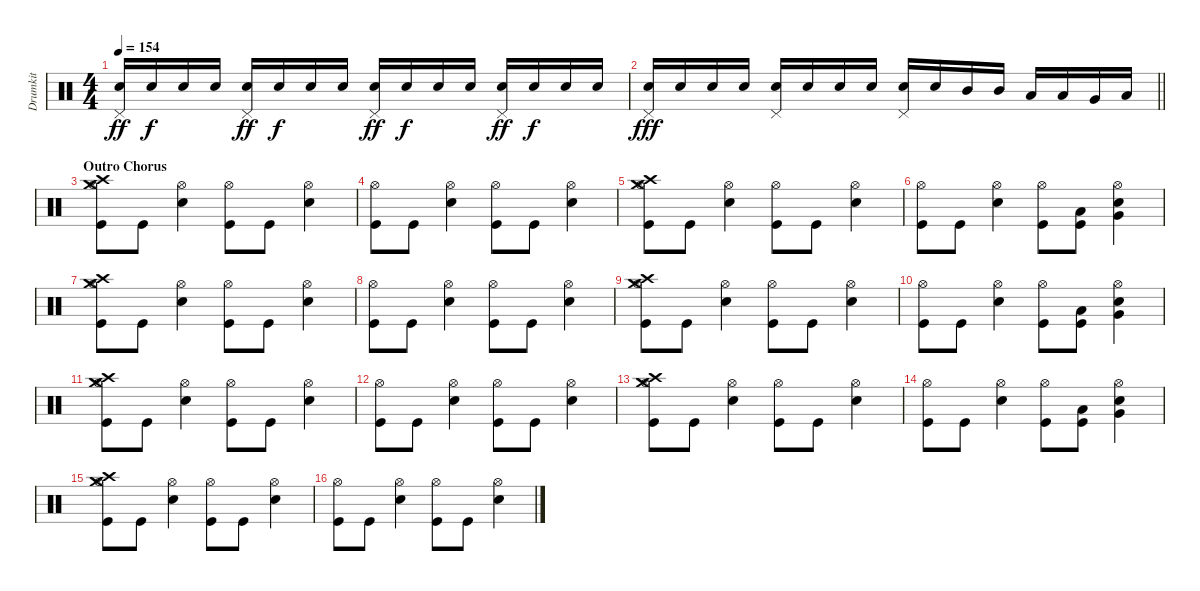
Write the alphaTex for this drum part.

\track ("Drumkit" "Drumkit") {instrument percussion}
\staff {score}
\articulation defaults
\ts (4 4)
\tempo 154
\clef neutral
\ks c
("Pedal Hi-Hat (hit)" "Snare (hit) 2").16{dy ff} "Snare (hit) 2".16{dy f} "Snare (hit) 2".16 "Snare (hit) 2".16 ("Pedal Hi-Hat (hit)" "Snare (hit) 2").16{dy ff} "Snare (hit) 2".16{dy f} "Snare (hit) 2".16 "Snare (hit) 2".16 ("Pedal Hi-Hat (hit)" "Snare (hit) 2").16{dy ff} "Snare (hit) 2".16{dy f} "Snare (hit) 2".16 "Snare (hit) 2".16 ("Pedal Hi-Hat (hit)" "Snare (hit) 2").16{dy ff} "Snare (hit) 2".16{dy f} "Snare (hit) 2".16 "Snare (hit) 2".16 |
\barLineRight lightlight
("Pedal Hi-Hat (hit)" "Snare (hit) 2").16{dy fff} "Snare (hit) 2".16 "Snare (hit) 2".16 "Snare (hit) 2".16 ("Pedal Hi-Hat (hit)" "Snare (hit) 2").16 "Snare (hit) 2".16 "Snare (hit) 2".16 "Snare (hit) 2".16 ("Pedal Hi-Hat (hit)" "Snare (hit) 2").16 "Snare (hit) 2".16 "Mid Tom (hit)".16 "Mid Tom (hit)".16 "Low Tom (hit)".16 "Low Tom (hit)".16 "Very Low Tom (hit)".16 "Low Floor Tom (hit)".16 |
\section ("" "Outro Chorus ")
("Crash high (hit)" "Hi-Hat (open)" "Crash medium (hit)" "Kick (hit)").8 "Kick (hit)".8 ("Hi-Hat (open)" "Snare (hit) 2").4 ("Hi-Hat (open)" "Kick (hit)").8 "Kick (hit)".8 ("Hi-Hat (open)" "Snare (hit) 2").4 |
("Hi-Hat (open)" "Kick (hit)").8 "Kick (hit)".8 ("Hi-Hat (open)" "Snare (hit) 2").4 ("Hi-Hat (open)" "Kick (hit)").8 "Kick (hit)".8 ("Hi-Hat (open)" "Snare (hit) 2").4 |
("Crash high (hit)" "Hi-Hat (open)" "Crash medium (hit)" "Kick (hit)").8 "Kick (hit)".8 ("Hi-Hat (open)" "Snare (hit) 2").4 ("Hi-Hat (open)" "Kick (hit)").8 "Kick (hit)".8 ("Hi-Hat (open)" "Snare (hit) 2").4 |
("Hi-Hat (open)" "Kick (hit)").8 "Kick (hit)".8 ("Hi-Hat (open)" "Snare (hit) 2").4 ("Hi-Hat (open)" "Kick (hit)").8 ("Low Tom (hit)" "Kick (hit)").8 ("Hi-Hat (open)" "Very Low Tom (hit)" "Snare (hit) 2").4 |
("Crash high (hit)" "Hi-Hat (open)" "Crash medium (hit)" "Kick (hit)").8 "Kick (hit)".8 ("Hi-Hat (open)" "Snare (hit) 2").4 ("Hi-Hat (open)" "Kick (hit)").8 "Kick (hit)".8 ("Hi-Hat (open)" "Snare (hit) 2").4 |
("Hi-Hat (open)" "Kick (hit)").8 "Kick (hit)".8 ("Hi-Hat (open)" "Snare (hit) 2").4 ("Hi-Hat (open)" "Kick (hit)").8 "Kick (hit)".8 ("Hi-Hat (open)" "Snare (hit) 2").4 |
("Crash high (hit)" "Hi-Hat (open)" "Crash medium (hit)" "Kick (hit)").8 "Kick (hit)".8 ("Hi-Hat (open)" "Snare (hit) 2").4 ("Hi-Hat (open)" "Kick (hit)").8 "Kick (hit)".8 ("Hi-Hat (open)" "Snare (hit) 2").4 |
("Hi-Hat (open)" "Kick (hit)").8 "Kick (hit)".8 ("Hi-Hat (open)" "Snare (hit) 2").4 ("Hi-Hat (open)" "Kick (hit)").8 ("Low Tom (hit)" "Kick (hit)").8 ("Hi-Hat (open)" "Very Low Tom (hit)" "Snare (hit) 2").4 |
("Crash high (hit)" "Hi-Hat (open)" "Crash medium (hit)" "Kick (hit)").8 "Kick (hit)".8 ("Hi-Hat (open)" "Snare (hit) 2").4 ("Hi-Hat (open)" "Kick (hit)").8 "Kick (hit)".8 ("Hi-Hat (open)" "Snare (hit) 2").4 |
("Hi-Hat (open)" "Kick (hit)").8 "Kick (hit)".8 ("Hi-Hat (open)" "Snare (hit) 2").4 ("Hi-Hat (open)" "Kick (hit)").8 "Kick (hit)".8 ("Hi-Hat (open)" "Snare (hit) 2").4 |
("Crash high (hit)" "Hi-Hat (open)" "Crash medium (hit)" "Kick (hit)").8 "Kick (hit)".8 ("Hi-Hat (open)" "Snare (hit) 2").4 ("Hi-Hat (open)" "Kick (hit)").8 "Kick (hit)".8 ("Hi-Hat (open)" "Snare (hit) 2").4 |
("Hi-Hat (open)" "Kick (hit)").8 "Kick (hit)".8 ("Hi-Hat (open)" "Snare (hit) 2").4 ("Hi-Hat (open)" "Kick (hit)").8 ("Low Tom (hit)" "Kick (hit)").8 ("Hi-Hat (open)" "Very Low Tom (hit)" "Snare (hit) 2").4 |
("Crash high (hit)" "Hi-Hat (open)" "Crash medium (hit)" "Kick (hit)").8 "Kick (hit)".8 ("Hi-Hat (open)" "Snare (hit) 2").4 ("Hi-Hat (open)" "Kick (hit)").8 "Kick (hit)".8 ("Hi-Hat (open)" "Snare (hit) 2").4 |
("Hi-Hat (open)" "Kick (hit)").8 "Kick (hit)".8 ("Hi-Hat (open)" "Snare (hit) 2").4 ("Hi-Hat (open)" "Kick (hit)").8 "Kick (hit)".8 ("Hi-Hat (open)" "Snare (hit) 2").4
